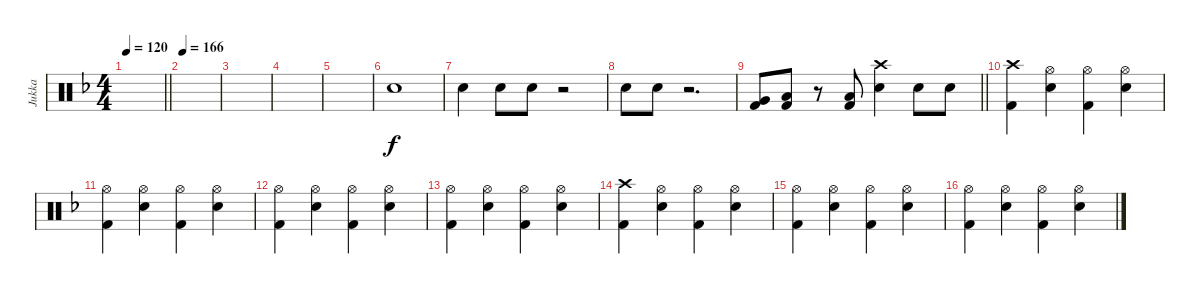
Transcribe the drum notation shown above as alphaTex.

\track ("Jukka" "Jukka") {instrument percussion}
\staff {score}
\articulation defaults
\ts (4 4)
\tempo 120
\clef neutral
\barLineRight lightlight
\ks f
|
\section ("" "")
\tempo 166
|
|
|
|
"Electric Snare (hit)".1 |
"Electric Snare (hit)".4 "Electric Snare (hit)".8 "Electric Snare (hit)".8 r.2 |
"Electric Snare (hit)".8 "Electric Snare (hit)".8 r.2{d} |
\barLineRight lightlight
("Kick (hit) 2" "Very Low Tom (hit)").8 ("Kick (hit) 2" "Low Floor Tom (hit)").8 r.8 ("Kick (hit) 2" "Low Floor Tom (hit)").8 ("Crash high (hit)" "Electric Snare (hit)").4 "Electric Snare (hit)".8 "Electric Snare (hit)".8 |
\section ("" "")
("Crash high (hit)" "Kick (hit) 2").4 ("Hi-Hat (open)" "Electric Snare (hit)").4 ("Hi-Hat (open)" "Kick (hit) 2").4 ("Hi-Hat (open)" "Electric Snare (hit)").4 |
("Hi-Hat (open)" "Kick (hit) 2").4 ("Hi-Hat (open)" "Electric Snare (hit)").4 ("Hi-Hat (open)" "Kick (hit) 2").4 ("Hi-Hat (open)" "Electric Snare (hit)").4 |
("Hi-Hat (open)" "Kick (hit) 2").4 ("Hi-Hat (open)" "Electric Snare (hit)").4 ("Hi-Hat (open)" "Kick (hit) 2").4 ("Hi-Hat (open)" "Electric Snare (hit)").4 |
("Hi-Hat (open)" "Kick (hit) 2").4 ("Hi-Hat (open)" "Electric Snare (hit)").4 ("Hi-Hat (open)" "Kick (hit) 2").4 ("Hi-Hat (open)" "Electric Snare (hit)").4 |
("Crash high (hit)" "Kick (hit) 2").4 ("Hi-Hat (open)" "Electric Snare (hit)").4 ("Hi-Hat (open)" "Kick (hit) 2").4 ("Hi-Hat (open)" "Electric Snare (hit)").4 |
("Hi-Hat (open)" "Kick (hit) 2").4 ("Hi-Hat (open)" "Electric Snare (hit)").4 ("Hi-Hat (open)" "Kick (hit) 2").4 ("Hi-Hat (open)" "Electric Snare (hit)").4 |
("Hi-Hat (open)" "Kick (hit) 2").4 ("Hi-Hat (open)" "Electric Snare (hit)").4 ("Hi-Hat (open)" "Kick (hit) 2").4 ("Hi-Hat (open)" "Electric Snare (hit)").4
